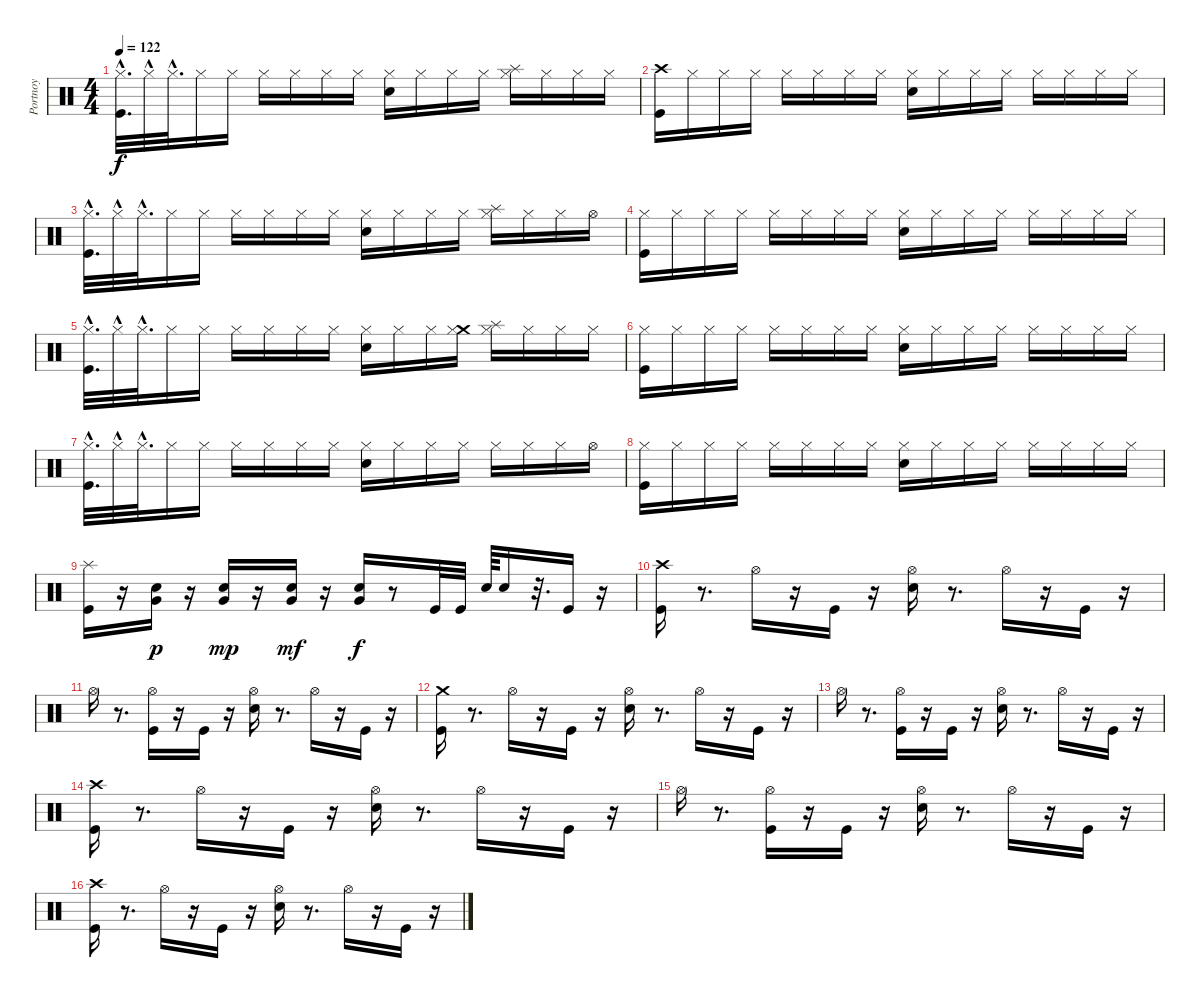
\track ("Portnoy" "Portnoy") {instrument percussion}
\staff {score}
\articulation defaults
\ts (4 4)
\tempo 122
\clef neutral
\ks c
("Hi-Hat (closed)"{hac} "Kick (hit)"{hac}).32{d dy f} "Hi-Hat (closed)"{hac}.32 "Hi-Hat (closed)"{hac}.32{d} "Hi-Hat (closed)".16 "Hi-Hat (closed)".16 "Hi-Hat (closed)".16 "Hi-Hat (closed)".16 "Hi-Hat (closed)".16 "Hi-Hat (closed)".16 ("Metronome (bell)" "Hi-Hat (closed)").16 "Hi-Hat (closed)".16 "Hi-Hat (closed)".16 "Hi-Hat (closed)".16 ("Splash (hit)" "Hi-Hat (closed)").16 "Hi-Hat (closed)".16 "Hi-Hat (closed)".16 "Hi-Hat (closed)".16 |
("Crash high (hit)" "Kick (hit)").16 "Hi-Hat (closed)".16 "Hi-Hat (closed)".16 "Hi-Hat (closed)".16 "Hi-Hat (closed)".16 "Hi-Hat (closed)".16 "Hi-Hat (closed)".16 "Hi-Hat (closed)".16 ("Metronome (bell)" "Hi-Hat (closed)").16 "Hi-Hat (closed)".16 "Hi-Hat (closed)".16 "Hi-Hat (closed)".16 "Hi-Hat (closed)".16 "Hi-Hat (closed)".16 "Hi-Hat (closed)".16 "Hi-Hat (closed)".16 |
("Hi-Hat (closed)"{hac} "Kick (hit)"{hac}).32{d} "Hi-Hat (closed)"{hac}.32 "Hi-Hat (closed)"{hac}.32{d} "Hi-Hat (closed)".16 "Hi-Hat (closed)".16 "Hi-Hat (closed)".16 "Hi-Hat (closed)".16 "Hi-Hat (closed)".16 "Hi-Hat (closed)".16 ("Metronome (bell)" "Hi-Hat (closed)").16 "Hi-Hat (closed)".16 "Hi-Hat (closed)".16 "Hi-Hat (closed)".16 ("Splash (hit)" "Hi-Hat (closed)").16 "Hi-Hat (closed)".16 "Hi-Hat (closed)".16 "Hi-Hat (open)".16 |
("Hi-Hat (closed)" "Kick (hit)").16 "Hi-Hat (closed)".16 "Hi-Hat (closed)".16 "Hi-Hat (closed)".16 "Hi-Hat (closed)".16 "Hi-Hat (closed)".16 "Hi-Hat (closed)".16 "Hi-Hat (closed)".16 ("Metronome (bell)" "Hi-Hat (closed)").16 "Hi-Hat (closed)".16 "Hi-Hat (closed)".16 "Hi-Hat (closed)".16 "Hi-Hat (closed)".16 "Hi-Hat (closed)".16 "Hi-Hat (closed)".16 "Hi-Hat (closed)".16 |
("Hi-Hat (closed)"{hac} "Kick (hit)"{hac}).32{d} "Hi-Hat (closed)"{hac}.32 "Hi-Hat (closed)"{hac}.32{d} "Hi-Hat (closed)".16 "Hi-Hat (closed)".16 "Hi-Hat (closed)".16 "Hi-Hat (closed)".16 "Hi-Hat (closed)".16 "Hi-Hat (closed)".16 ("Metronome (bell)" "Hi-Hat (closed)").16 "Hi-Hat (closed)".16 "Hi-Hat (closed)".16 ("Crash medium (hit)" "Hi-Hat (closed)").16 ("Splash (hit)" "Hi-Hat (closed)").16 "Hi-Hat (closed)".16 "Hi-Hat (closed)".16 "Hi-Hat (closed)".16 |
("Hi-Hat (closed)" "Kick (hit)").16 "Hi-Hat (closed)".16 "Hi-Hat (closed)".16 "Hi-Hat (closed)".16 "Hi-Hat (closed)".16 "Hi-Hat (closed)".16 "Hi-Hat (closed)".16 "Hi-Hat (closed)".16 ("Metronome (bell)" "Hi-Hat (closed)").16 "Hi-Hat (closed)".16 "Hi-Hat (closed)".16 "Hi-Hat (closed)".16 "Hi-Hat (closed)".16 "Hi-Hat (closed)".16 "Hi-Hat (closed)".16 "Hi-Hat (closed)".16 |
("Hi-Hat (closed)"{hac} "Kick (hit)"{hac}).32{d} "Hi-Hat (closed)"{hac}.32 "Hi-Hat (closed)"{hac}.32{d} "Hi-Hat (closed)".16 "Hi-Hat (closed)".16 "Hi-Hat (closed)".16 "Hi-Hat (closed)".16 "Hi-Hat (closed)".16 "Hi-Hat (closed)".16 ("Metronome (bell)" "Hi-Hat (closed)").16 "Hi-Hat (closed)".16 "Hi-Hat (closed)".16 "Hi-Hat (closed)".16 "Hi-Hat (closed)".16 "Hi-Hat (closed)".16 "Hi-Hat (closed)".16 "Hi-Hat (open)".16 |
("Hi-Hat (closed)" "Kick (hit)").16 "Hi-Hat (closed)".16 "Hi-Hat (closed)".16 "Hi-Hat (closed)".16 "Hi-Hat (closed)".16 "Hi-Hat (closed)".16 "Hi-Hat (closed)".16 "Hi-Hat (closed)".16 ("Metronome (bell)" "Hi-Hat (closed)").16 "Hi-Hat (closed)".16 "Hi-Hat (closed)".16 "Hi-Hat (closed)".16 "Hi-Hat (closed)".16 "Hi-Hat (closed)".16 "Hi-Hat (closed)".16 "Hi-Hat (closed)".16 |
("Splash (hit)" "Kick (hit)").16 r.16 ("Metronome (bell)" "Very Low Tom (hit)").16{dy p} r.16 ("Metronome (bell)" "Very Low Tom (hit)").16{dy mp} r.16 ("Metronome (bell)" "Very Low Tom (hit)").16{dy mf} r.16 ("Metronome (bell)" "Very Low Tom (hit)").16{dy f} r.8 "Kick (hit)".32 "Kick (hit)".32 "Metronome (bell)".64 "Metronome (bell)".16 r.32{d} "Kick (hit)".16 r.16 |
("Kick (hit)" "Crash high (hit)").16 r.8{d} "Hi-Hat (open)".16 r.16 "Kick (hit)".16 r.16 ("Hi-Hat (open)" "Metronome (bell)").16 r.8{d} "Hi-Hat (open)".16 r.16 "Kick (hit)".16 r.16 |
"Hi-Hat (open)".16 r.8{d} ("Kick (hit)" "Hi-Hat (open)").16 r.16 "Kick (hit)".16 r.16 ("Metronome (bell)" "Hi-Hat (open)").16 r.8{d} "Hi-Hat (open)".16 r.16 "Kick (hit)".16 r.16 |
("Crash medium (hit)" "Kick (hit)").16 r.8{d} "Hi-Hat (open)".16 r.16 "Kick (hit)".16 r.16 ("Metronome (bell)" "Hi-Hat (open)").16 r.8{d} "Hi-Hat (open)".16 r.16 "Kick (hit)".16 r.16 |
"Hi-Hat (open)".16 r.8{d} ("Kick (hit)" "Hi-Hat (open)").16 r.16 "Kick (hit)".16 r.16 ("Metronome (bell)" "Hi-Hat (open)").16 r.8{d} "Hi-Hat (open)".16 r.16 "Kick (hit)".16 r.16 |
("Kick (hit)" "Crash high (hit)").16 r.8{d} "Hi-Hat (open)".16 r.16 "Kick (hit)".16 r.16 ("Hi-Hat (open)" "Metronome (bell)").16 r.8{d} "Hi-Hat (open)".16 r.16 "Kick (hit)".16 r.16 |
"Hi-Hat (open)".16 r.8{d} ("Kick (hit)" "Hi-Hat (open)").16 r.16 "Kick (hit)".16 r.16 ("Metronome (bell)" "Hi-Hat (open)").16 r.8{d} "Hi-Hat (open)".16 r.16 "Kick (hit)".16 r.16 |
("Crash high (hit)" "Kick (hit)").16 r.8{d} "Hi-Hat (open)".16 r.16 "Kick (hit)".16 r.16 ("Metronome (bell)" "Hi-Hat (open)").16 r.8{d} "Hi-Hat (open)".16 r.16 "Kick (hit)".16 r.16
